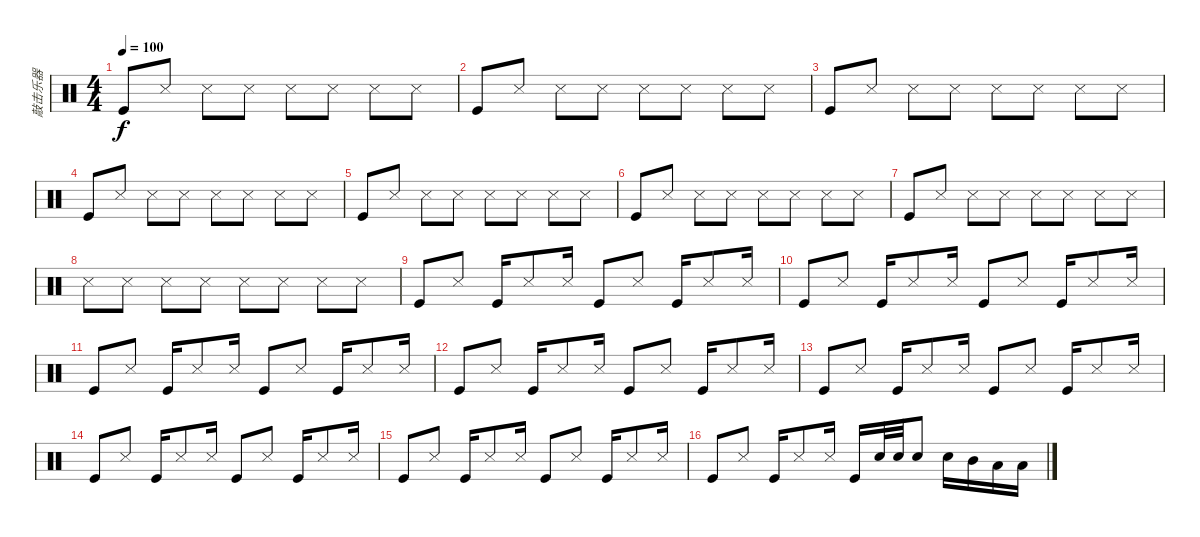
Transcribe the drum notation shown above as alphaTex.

\track ("敲击乐器" "敲击乐器") {instrument percussion}
\staff {score}
\articulation defaults
\ts (4 4)
\tempo 100
\clef neutral
\ks c "Kick (hit)".8{dy f} "Snare (side stick) 3".8 "Snare (side stick) 3".8 "Snare (side stick) 3".8 "Snare (side stick) 3".8 "Snare (side stick) 3".8 "Snare (side stick) 3".8 "Snare (side stick) 3".8
|
"Kick (hit)".8 "Snare (side stick) 3".8 "Snare (side stick) 3".8 "Snare (side stick) 3".8 "Snare (side stick) 3".8 "Snare (side stick) 3".8 "Snare (side stick) 3".8 "Snare (side stick) 3".8 |
"Kick (hit)".8 "Snare (side stick) 3".8 "Snare (side stick) 3".8 "Snare (side stick) 3".8 "Snare (side stick) 3".8 "Snare (side stick) 3".8 "Snare (side stick) 3".8 "Snare (side stick) 3".8 |
"Kick (hit)".8 "Snare (side stick) 3".8 "Snare (side stick) 3".8 "Snare (side stick) 3".8 "Snare (side stick) 3".8 "Snare (side stick) 3".8 "Snare (side stick) 3".8 "Snare (side stick) 3".8 |
"Kick (hit)".8 "Snare (side stick) 3".8 "Snare (side stick) 3".8 "Snare (side stick) 3".8 "Snare (side stick) 3".8 "Snare (side stick) 3".8 "Snare (side stick) 3".8 "Snare (side stick) 3".8 |
"Kick (hit)".8 "Snare (side stick) 3".8 "Snare (side stick) 3".8 "Snare (side stick) 3".8 "Snare (side stick) 3".8 "Snare (side stick) 3".8 "Snare (side stick) 3".8 "Snare (side stick) 3".8 |
"Kick (hit)".8 "Snare (side stick) 3".8 "Snare (side stick) 3".8 "Snare (side stick) 3".8 "Snare (side stick) 3".8 "Snare (side stick) 3".8 "Snare (side stick) 3".8 "Snare (side stick) 3".8 |
"Snare (side stick) 3".8 "Snare (side stick) 3".8 "Snare (side stick) 3".8 "Snare (side stick) 3".8 "Snare (side stick) 3".8 "Snare (side stick) 3".8 "Snare (side stick) 3".8 "Snare (side stick) 3".8 |
"Kick (hit)".8 "Snare (side stick) 3".8 "Kick (hit)".16 "Snare (side stick) 3".8 "Snare (side stick) 3".16 "Kick (hit)".8 "Snare (side stick) 3".8 "Kick (hit)".16 "Snare (side stick) 3".8 "Snare (side stick) 3".16 |
"Kick (hit)".8 "Snare (side stick) 3".8 "Kick (hit)".16 "Snare (side stick) 3".8 "Snare (side stick) 3".16 "Kick (hit)".8 "Snare (side stick) 3".8 "Kick (hit)".16 "Snare (side stick) 3".8 "Snare (side stick) 3".16 |
"Kick (hit)".8 "Snare (side stick) 3".8 "Kick (hit)".16 "Snare (side stick) 3".8 "Snare (side stick) 3".16 "Kick (hit)".8 "Snare (side stick) 3".8 "Kick (hit)".16 "Snare (side stick) 3".8 "Snare (side stick) 3".16 |
"Kick (hit)".8 "Snare (side stick) 3".8 "Kick (hit)".16 "Snare (side stick) 3".8 "Snare (side stick) 3".16 "Kick (hit)".8 "Snare (side stick) 3".8 "Kick (hit)".16 "Snare (side stick) 3".8 "Snare (side stick) 3".16 |
"Kick (hit)".8 "Snare (side stick) 3".8 "Kick (hit)".16 "Snare (side stick) 3".8 "Snare (side stick) 3".16 "Kick (hit)".8 "Snare (side stick) 3".8 "Kick (hit)".16 "Snare (side stick) 3".8 "Snare (side stick) 3".16 |
"Kick (hit)".8 "Snare (side stick) 3".8 "Kick (hit)".16 "Snare (side stick) 3".8 "Snare (side stick) 3".16 "Kick (hit)".8 "Snare (side stick) 3".8 "Kick (hit)".16 "Snare (side stick) 3".8 "Snare (side stick) 3".16 |
"Kick (hit)".8 "Snare (side stick) 3".8 "Kick (hit)".16 "Snare (side stick) 3".8 "Snare (side stick) 3".16 "Kick (hit)".8 "Snare (side stick) 3".8 "Kick (hit)".16 "Snare (side stick) 3".8 "Snare (side stick) 3".16 |
"Kick (hit)".8 "Snare (side stick) 3".8 "Kick (hit)".16 "Snare (side stick) 3".8 "Snare (side stick) 3".16 "Kick (hit)".16 "Snare (hit) 2".32 "Snare (hit) 2".32 "Snare (hit) 2".8 "Snare (hit) 2".16 "Mid Tom (hit)".16 "Low Tom (hit)".16 "Low Tom (hit)".16
